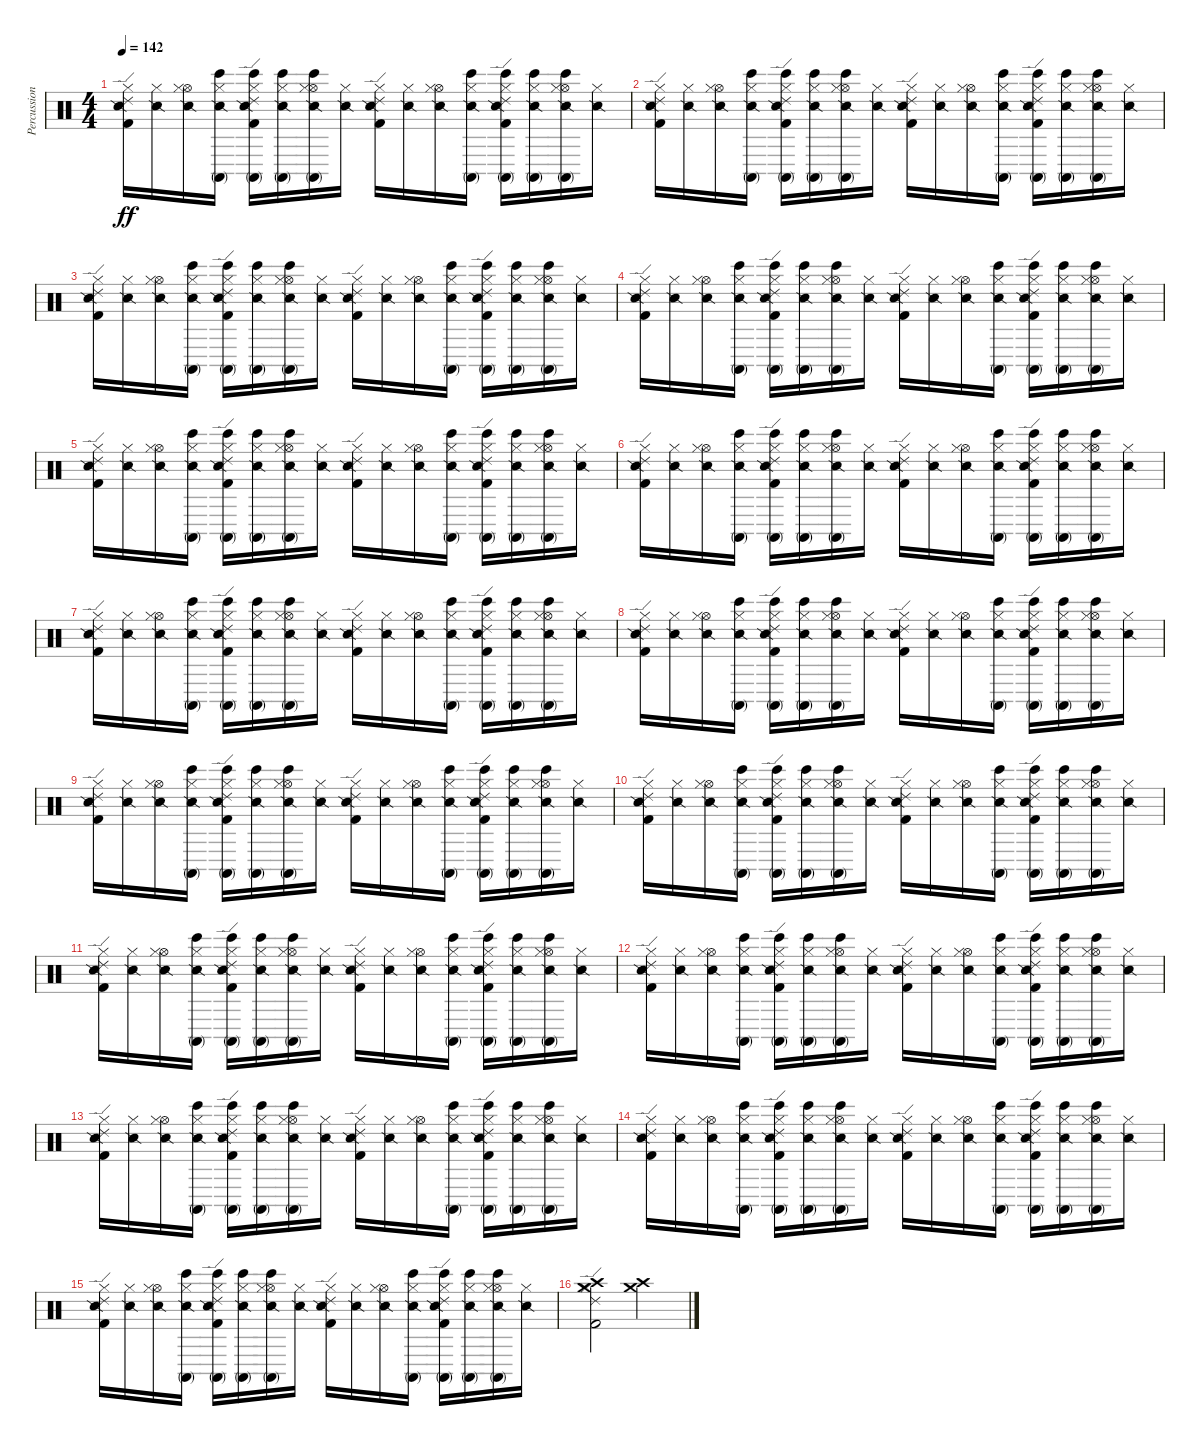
\track ("Percussion" "Percussion") {instrument percussion}
\staff {score}
\articulation defaults
\ts (4 4)
\tempo 142
\clef neutral
\ks c
("Ride (edge) 2" "Hi-Hat (closed)" "Snare (side stick) 2" "Kick (hit) 2").16{dy ff} ("Hi-Hat (closed)" "Snare (side stick) 2").16 ("Hi-Hat (open)" "Hi-Hat (closed)" "Snare (side stick) 2").16 ("Conga high (mute)" "Bongo High (hit)" "Hi-Hat (closed)" "Snare (side stick) 2").16 ("Conga high (mute)" "Bongo High (hit)" "Ride (edge) 2" "Hi-Hat (closed)" "Snare (side stick) 2" "Kick (hit) 2").16 ("Conga high (mute)" "Bongo High (hit)" "Hi-Hat (closed)" "Snare (side stick) 2").16 ("Conga high (mute)" "Bongo High (hit)" "Hi-Hat (open)" "Hi-Hat (closed)" "Snare (side stick) 2").16 ("Hi-Hat (closed)" "Snare (side stick) 2").16 ("Ride (edge) 2" "Hi-Hat (closed)" "Snare (side stick) 2" "Kick (hit) 2").16 ("Hi-Hat (closed)" "Snare (side stick) 2").16 ("Hi-Hat (open)" "Hi-Hat (closed)" "Snare (side stick) 2").16 ("Conga high (mute)" "Bongo High (hit)" "Hi-Hat (closed)" "Snare (side stick) 2").16 ("Conga high (mute)" "Bongo High (hit)" "Ride (edge) 2" "Hi-Hat (closed)" "Snare (side stick) 2" "Kick (hit) 2").16 ("Conga high (mute)" "Bongo High (hit)" "Hi-Hat (closed)" "Snare (side stick) 2").16 ("Conga high (mute)" "Bongo High (hit)" "Hi-Hat (open)" "Hi-Hat (closed)" "Snare (side stick) 2").16 ("Hi-Hat (closed)" "Snare (side stick) 2").16 |
("Ride (edge) 2" "Hi-Hat (closed)" "Snare (side stick) 2" "Kick (hit) 2").16 ("Hi-Hat (closed)" "Snare (side stick) 2").16 ("Hi-Hat (open)" "Hi-Hat (closed)" "Snare (side stick) 2").16 ("Conga high (mute)" "Bongo High (hit)" "Hi-Hat (closed)" "Snare (side stick) 2").16 ("Conga high (mute)" "Bongo High (hit)" "Ride (edge) 2" "Hi-Hat (closed)" "Snare (side stick) 2" "Kick (hit) 2").16 ("Conga high (mute)" "Bongo High (hit)" "Hi-Hat (closed)" "Snare (side stick) 2").16 ("Conga high (mute)" "Bongo High (hit)" "Hi-Hat (open)" "Hi-Hat (closed)" "Snare (side stick) 2").16 ("Hi-Hat (closed)" "Snare (side stick) 2").16 ("Ride (edge) 2" "Hi-Hat (closed)" "Snare (side stick) 2" "Kick (hit) 2").16 ("Hi-Hat (closed)" "Snare (side stick) 2").16 ("Hi-Hat (open)" "Hi-Hat (closed)" "Snare (side stick) 2").16 ("Conga high (mute)" "Bongo High (hit)" "Hi-Hat (closed)" "Snare (side stick) 2").16 ("Conga high (mute)" "Bongo High (hit)" "Ride (edge) 2" "Hi-Hat (closed)" "Snare (side stick) 2" "Kick (hit) 2").16 ("Conga high (mute)" "Bongo High (hit)" "Hi-Hat (closed)" "Snare (side stick) 2").16 ("Conga high (mute)" "Bongo High (hit)" "Hi-Hat (open)" "Hi-Hat (closed)" "Snare (side stick) 2").16 ("Hi-Hat (closed)" "Snare (side stick) 2").16 |
("Ride (edge) 2" "Hi-Hat (closed)" "Snare (side stick) 2" "Kick (hit) 2").16 ("Hi-Hat (closed)" "Snare (side stick) 2").16 ("Hi-Hat (open)" "Hi-Hat (closed)" "Snare (side stick) 2").16 ("Conga high (mute)" "Bongo High (hit)" "Hi-Hat (closed)" "Snare (side stick) 2").16 ("Conga high (mute)" "Bongo High (hit)" "Ride (edge) 2" "Hi-Hat (closed)" "Snare (side stick) 2" "Kick (hit) 2").16 ("Conga high (mute)" "Bongo High (hit)" "Hi-Hat (closed)" "Snare (side stick) 2").16 ("Conga high (mute)" "Bongo High (hit)" "Hi-Hat (open)" "Hi-Hat (closed)" "Snare (side stick) 2").16 ("Hi-Hat (closed)" "Snare (side stick) 2").16 ("Ride (edge) 2" "Hi-Hat (closed)" "Snare (side stick) 2" "Kick (hit) 2").16 ("Hi-Hat (closed)" "Snare (side stick) 2").16 ("Hi-Hat (open)" "Hi-Hat (closed)" "Snare (side stick) 2").16 ("Conga high (mute)" "Bongo High (hit)" "Hi-Hat (closed)" "Snare (side stick) 2").16 ("Conga high (mute)" "Bongo High (hit)" "Ride (edge) 2" "Hi-Hat (closed)" "Snare (side stick) 2" "Kick (hit) 2").16 ("Conga high (mute)" "Bongo High (hit)" "Hi-Hat (closed)" "Snare (side stick) 2").16 ("Conga high (mute)" "Bongo High (hit)" "Hi-Hat (open)" "Hi-Hat (closed)" "Snare (side stick) 2").16 ("Hi-Hat (closed)" "Snare (side stick) 2").16 |
("Ride (edge) 2" "Hi-Hat (closed)" "Snare (side stick) 2" "Kick (hit) 2").16 ("Hi-Hat (closed)" "Snare (side stick) 2").16 ("Hi-Hat (open)" "Hi-Hat (closed)" "Snare (side stick) 2").16 ("Conga high (mute)" "Bongo High (hit)" "Hi-Hat (closed)" "Snare (side stick) 2").16 ("Conga high (mute)" "Bongo High (hit)" "Ride (edge) 2" "Hi-Hat (closed)" "Snare (side stick) 2" "Kick (hit) 2").16 ("Conga high (mute)" "Bongo High (hit)" "Hi-Hat (closed)" "Snare (side stick) 2").16 ("Conga high (mute)" "Bongo High (hit)" "Hi-Hat (open)" "Hi-Hat (closed)" "Snare (side stick) 2").16 ("Hi-Hat (closed)" "Snare (side stick) 2").16 ("Ride (edge) 2" "Hi-Hat (closed)" "Snare (side stick) 2" "Kick (hit) 2").16 ("Hi-Hat (closed)" "Snare (side stick) 2").16 ("Hi-Hat (open)" "Hi-Hat (closed)" "Snare (side stick) 2").16 ("Conga high (mute)" "Bongo High (hit)" "Hi-Hat (closed)" "Snare (side stick) 2").16 ("Conga high (mute)" "Bongo High (hit)" "Ride (edge) 2" "Hi-Hat (closed)" "Snare (side stick) 2" "Kick (hit) 2").16 ("Conga high (mute)" "Bongo High (hit)" "Hi-Hat (closed)" "Snare (side stick) 2").16 ("Conga high (mute)" "Bongo High (hit)" "Hi-Hat (open)" "Hi-Hat (closed)" "Snare (side stick) 2").16 ("Hi-Hat (closed)" "Snare (side stick) 2").16 |
("Ride (edge) 2" "Hi-Hat (closed)" "Snare (side stick) 2" "Kick (hit) 2").16 ("Hi-Hat (closed)" "Snare (side stick) 2").16 ("Hi-Hat (open)" "Hi-Hat (closed)" "Snare (side stick) 2").16 ("Conga high (mute)" "Bongo High (hit)" "Hi-Hat (closed)" "Snare (side stick) 2").16 ("Conga high (mute)" "Bongo High (hit)" "Ride (edge) 2" "Hi-Hat (closed)" "Snare (side stick) 2" "Kick (hit) 2").16 ("Conga high (mute)" "Bongo High (hit)" "Hi-Hat (closed)" "Snare (side stick) 2").16 ("Conga high (mute)" "Bongo High (hit)" "Hi-Hat (open)" "Hi-Hat (closed)" "Snare (side stick) 2").16 ("Hi-Hat (closed)" "Snare (side stick) 2").16 ("Ride (edge) 2" "Hi-Hat (closed)" "Snare (side stick) 2" "Kick (hit) 2").16 ("Hi-Hat (closed)" "Snare (side stick) 2").16 ("Hi-Hat (open)" "Hi-Hat (closed)" "Snare (side stick) 2").16 ("Conga high (mute)" "Bongo High (hit)" "Hi-Hat (closed)" "Snare (side stick) 2").16 ("Conga high (mute)" "Bongo High (hit)" "Ride (edge) 2" "Hi-Hat (closed)" "Snare (side stick) 2" "Kick (hit) 2").16 ("Conga high (mute)" "Bongo High (hit)" "Hi-Hat (closed)" "Snare (side stick) 2").16 ("Conga high (mute)" "Bongo High (hit)" "Hi-Hat (open)" "Hi-Hat (closed)" "Snare (side stick) 2").16 ("Hi-Hat (closed)" "Snare (side stick) 2").16 |
("Ride (edge) 2" "Hi-Hat (closed)" "Snare (side stick) 2" "Kick (hit) 2").16 ("Hi-Hat (closed)" "Snare (side stick) 2").16 ("Hi-Hat (open)" "Hi-Hat (closed)" "Snare (side stick) 2").16 ("Conga high (mute)" "Bongo High (hit)" "Hi-Hat (closed)" "Snare (side stick) 2").16 ("Conga high (mute)" "Bongo High (hit)" "Ride (edge) 2" "Hi-Hat (closed)" "Snare (side stick) 2" "Kick (hit) 2").16 ("Conga high (mute)" "Bongo High (hit)" "Hi-Hat (closed)" "Snare (side stick) 2").16 ("Conga high (mute)" "Bongo High (hit)" "Hi-Hat (open)" "Hi-Hat (closed)" "Snare (side stick) 2").16 ("Hi-Hat (closed)" "Snare (side stick) 2").16 ("Ride (edge) 2" "Hi-Hat (closed)" "Snare (side stick) 2" "Kick (hit) 2").16 ("Hi-Hat (closed)" "Snare (side stick) 2").16 ("Hi-Hat (open)" "Hi-Hat (closed)" "Snare (side stick) 2").16 ("Conga high (mute)" "Bongo High (hit)" "Hi-Hat (closed)" "Snare (side stick) 2").16 ("Conga high (mute)" "Bongo High (hit)" "Ride (edge) 2" "Hi-Hat (closed)" "Snare (side stick) 2" "Kick (hit) 2").16 ("Conga high (mute)" "Bongo High (hit)" "Hi-Hat (closed)" "Snare (side stick) 2").16 ("Conga high (mute)" "Bongo High (hit)" "Hi-Hat (open)" "Hi-Hat (closed)" "Snare (side stick) 2").16 ("Hi-Hat (closed)" "Snare (side stick) 2").16 |
("Ride (edge) 2" "Hi-Hat (closed)" "Snare (side stick) 2" "Kick (hit) 2").16 ("Hi-Hat (closed)" "Snare (side stick) 2").16 ("Hi-Hat (open)" "Hi-Hat (closed)" "Snare (side stick) 2").16 ("Conga high (mute)" "Bongo High (hit)" "Hi-Hat (closed)" "Snare (side stick) 2").16 ("Conga high (mute)" "Bongo High (hit)" "Ride (edge) 2" "Hi-Hat (closed)" "Snare (side stick) 2" "Kick (hit) 2").16 ("Conga high (mute)" "Bongo High (hit)" "Hi-Hat (closed)" "Snare (side stick) 2").16 ("Conga high (mute)" "Bongo High (hit)" "Hi-Hat (open)" "Hi-Hat (closed)" "Snare (side stick) 2").16 ("Hi-Hat (closed)" "Snare (side stick) 2").16 ("Ride (edge) 2" "Hi-Hat (closed)" "Snare (side stick) 2" "Kick (hit) 2").16 ("Hi-Hat (closed)" "Snare (side stick) 2").16 ("Hi-Hat (open)" "Hi-Hat (closed)" "Snare (side stick) 2").16 ("Conga high (mute)" "Bongo High (hit)" "Hi-Hat (closed)" "Snare (side stick) 2").16 ("Conga high (mute)" "Bongo High (hit)" "Ride (edge) 2" "Hi-Hat (closed)" "Snare (side stick) 2" "Kick (hit) 2").16 ("Conga high (mute)" "Bongo High (hit)" "Hi-Hat (closed)" "Snare (side stick) 2").16 ("Conga high (mute)" "Bongo High (hit)" "Hi-Hat (open)" "Hi-Hat (closed)" "Snare (side stick) 2").16 ("Hi-Hat (closed)" "Snare (side stick) 2").16 |
("Ride (edge) 2" "Hi-Hat (closed)" "Snare (side stick) 2" "Kick (hit) 2").16 ("Hi-Hat (closed)" "Snare (side stick) 2").16 ("Hi-Hat (open)" "Hi-Hat (closed)" "Snare (side stick) 2").16 ("Conga high (mute)" "Bongo High (hit)" "Hi-Hat (closed)" "Snare (side stick) 2").16 ("Conga high (mute)" "Bongo High (hit)" "Ride (edge) 2" "Hi-Hat (closed)" "Snare (side stick) 2" "Kick (hit) 2").16 ("Conga high (mute)" "Bongo High (hit)" "Hi-Hat (closed)" "Snare (side stick) 2").16 ("Conga high (mute)" "Bongo High (hit)" "Hi-Hat (open)" "Hi-Hat (closed)" "Snare (side stick) 2").16 ("Hi-Hat (closed)" "Snare (side stick) 2").16 ("Ride (edge) 2" "Hi-Hat (closed)" "Snare (side stick) 2" "Kick (hit) 2").16 ("Hi-Hat (closed)" "Snare (side stick) 2").16 ("Hi-Hat (open)" "Hi-Hat (closed)" "Snare (side stick) 2").16 ("Conga high (mute)" "Bongo High (hit)" "Hi-Hat (closed)" "Snare (side stick) 2").16 ("Conga high (mute)" "Bongo High (hit)" "Ride (edge) 2" "Hi-Hat (closed)" "Snare (side stick) 2" "Kick (hit) 2").16 ("Conga high (mute)" "Bongo High (hit)" "Hi-Hat (closed)" "Snare (side stick) 2").16 ("Conga high (mute)" "Bongo High (hit)" "Hi-Hat (open)" "Hi-Hat (closed)" "Snare (side stick) 2").16 ("Hi-Hat (closed)" "Snare (side stick) 2").16 |
("Ride (edge) 2" "Hi-Hat (closed)" "Snare (side stick) 2" "Kick (hit) 2").16 ("Hi-Hat (closed)" "Snare (side stick) 2").16 ("Hi-Hat (open)" "Hi-Hat (closed)" "Snare (side stick) 2").16 ("Conga high (mute)" "Bongo High (hit)" "Hi-Hat (closed)" "Snare (side stick) 2").16 ("Conga high (mute)" "Bongo High (hit)" "Ride (edge) 2" "Hi-Hat (closed)" "Snare (side stick) 2" "Kick (hit) 2").16 ("Conga high (mute)" "Bongo High (hit)" "Hi-Hat (closed)" "Snare (side stick) 2").16 ("Conga high (mute)" "Bongo High (hit)" "Hi-Hat (open)" "Hi-Hat (closed)" "Snare (side stick) 2").16 ("Hi-Hat (closed)" "Snare (side stick) 2").16 ("Ride (edge) 2" "Hi-Hat (closed)" "Snare (side stick) 2" "Kick (hit) 2").16 ("Hi-Hat (closed)" "Snare (side stick) 2").16 ("Hi-Hat (open)" "Hi-Hat (closed)" "Snare (side stick) 2").16 ("Conga high (mute)" "Bongo High (hit)" "Hi-Hat (closed)" "Snare (side stick) 2").16 ("Conga high (mute)" "Bongo High (hit)" "Ride (edge) 2" "Hi-Hat (closed)" "Snare (side stick) 2" "Kick (hit) 2").16 ("Conga high (mute)" "Bongo High (hit)" "Hi-Hat (closed)" "Snare (side stick) 2").16 ("Conga high (mute)" "Bongo High (hit)" "Hi-Hat (open)" "Hi-Hat (closed)" "Snare (side stick) 2").16 ("Hi-Hat (closed)" "Snare (side stick) 2").16 |
("Ride (edge) 2" "Hi-Hat (closed)" "Snare (side stick) 2" "Kick (hit) 2").16 ("Hi-Hat (closed)" "Snare (side stick) 2").16 ("Hi-Hat (open)" "Hi-Hat (closed)" "Snare (side stick) 2").16 ("Conga high (mute)" "Bongo High (hit)" "Hi-Hat (closed)" "Snare (side stick) 2").16 ("Conga high (mute)" "Bongo High (hit)" "Ride (edge) 2" "Hi-Hat (closed)" "Snare (side stick) 2" "Kick (hit) 2").16 ("Conga high (mute)" "Bongo High (hit)" "Hi-Hat (closed)" "Snare (side stick) 2").16 ("Conga high (mute)" "Bongo High (hit)" "Hi-Hat (open)" "Hi-Hat (closed)" "Snare (side stick) 2").16 ("Hi-Hat (closed)" "Snare (side stick) 2").16 ("Ride (edge) 2" "Hi-Hat (closed)" "Snare (side stick) 2" "Kick (hit) 2").16 ("Hi-Hat (closed)" "Snare (side stick) 2").16 ("Hi-Hat (open)" "Hi-Hat (closed)" "Snare (side stick) 2").16 ("Conga high (mute)" "Bongo High (hit)" "Hi-Hat (closed)" "Snare (side stick) 2").16 ("Conga high (mute)" "Bongo High (hit)" "Ride (edge) 2" "Hi-Hat (closed)" "Snare (side stick) 2" "Kick (hit) 2").16 ("Conga high (mute)" "Bongo High (hit)" "Hi-Hat (closed)" "Snare (side stick) 2").16 ("Conga high (mute)" "Bongo High (hit)" "Hi-Hat (open)" "Hi-Hat (closed)" "Snare (side stick) 2").16 ("Hi-Hat (closed)" "Snare (side stick) 2").16 |
("Ride (edge) 2" "Hi-Hat (closed)" "Snare (side stick) 2" "Kick (hit) 2").16 ("Hi-Hat (closed)" "Snare (side stick) 2").16 ("Hi-Hat (open)" "Hi-Hat (closed)" "Snare (side stick) 2").16 ("Conga high (mute)" "Bongo High (hit)" "Hi-Hat (closed)" "Snare (side stick) 2").16 ("Conga high (mute)" "Bongo High (hit)" "Ride (edge) 2" "Hi-Hat (closed)" "Snare (side stick) 2" "Kick (hit) 2").16 ("Conga high (mute)" "Bongo High (hit)" "Hi-Hat (closed)" "Snare (side stick) 2").16 ("Conga high (mute)" "Bongo High (hit)" "Hi-Hat (open)" "Hi-Hat (closed)" "Snare (side stick) 2").16 ("Hi-Hat (closed)" "Snare (side stick) 2").16 ("Ride (edge) 2" "Hi-Hat (closed)" "Snare (side stick) 2" "Kick (hit) 2").16 ("Hi-Hat (closed)" "Snare (side stick) 2").16 ("Hi-Hat (open)" "Hi-Hat (closed)" "Snare (side stick) 2").16 ("Conga high (mute)" "Bongo High (hit)" "Hi-Hat (closed)" "Snare (side stick) 2").16 ("Conga high (mute)" "Bongo High (hit)" "Ride (edge) 2" "Hi-Hat (closed)" "Snare (side stick) 2" "Kick (hit) 2").16 ("Conga high (mute)" "Bongo High (hit)" "Hi-Hat (closed)" "Snare (side stick) 2").16 ("Conga high (mute)" "Bongo High (hit)" "Hi-Hat (open)" "Hi-Hat (closed)" "Snare (side stick) 2").16 ("Hi-Hat (closed)" "Snare (side stick) 2").16 |
("Ride (edge) 2" "Hi-Hat (closed)" "Snare (side stick) 2" "Kick (hit) 2").16 ("Hi-Hat (closed)" "Snare (side stick) 2").16 ("Hi-Hat (open)" "Hi-Hat (closed)" "Snare (side stick) 2").16 ("Conga high (mute)" "Bongo High (hit)" "Hi-Hat (closed)" "Snare (side stick) 2").16 ("Conga high (mute)" "Bongo High (hit)" "Ride (edge) 2" "Hi-Hat (closed)" "Snare (side stick) 2" "Kick (hit) 2").16 ("Conga high (mute)" "Bongo High (hit)" "Hi-Hat (closed)" "Snare (side stick) 2").16 ("Conga high (mute)" "Bongo High (hit)" "Hi-Hat (open)" "Hi-Hat (closed)" "Snare (side stick) 2").16 ("Hi-Hat (closed)" "Snare (side stick) 2").16 ("Ride (edge) 2" "Hi-Hat (closed)" "Snare (side stick) 2" "Kick (hit) 2").16 ("Hi-Hat (closed)" "Snare (side stick) 2").16 ("Hi-Hat (open)" "Hi-Hat (closed)" "Snare (side stick) 2").16 ("Conga high (mute)" "Bongo High (hit)" "Hi-Hat (closed)" "Snare (side stick) 2").16 ("Conga high (mute)" "Bongo High (hit)" "Ride (edge) 2" "Hi-Hat (closed)" "Snare (side stick) 2" "Kick (hit) 2").16 ("Conga high (mute)" "Bongo High (hit)" "Hi-Hat (closed)" "Snare (side stick) 2").16 ("Conga high (mute)" "Bongo High (hit)" "Hi-Hat (open)" "Hi-Hat (closed)" "Snare (side stick) 2").16 ("Hi-Hat (closed)" "Snare (side stick) 2").16 |
("Ride (edge) 2" "Hi-Hat (closed)" "Snare (side stick) 2" "Kick (hit) 2").16 ("Hi-Hat (closed)" "Snare (side stick) 2").16 ("Hi-Hat (open)" "Hi-Hat (closed)" "Snare (side stick) 2").16 ("Conga high (mute)" "Bongo High (hit)" "Hi-Hat (closed)" "Snare (side stick) 2").16 ("Conga high (mute)" "Bongo High (hit)" "Ride (edge) 2" "Hi-Hat (closed)" "Snare (side stick) 2" "Kick (hit) 2").16 ("Conga high (mute)" "Bongo High (hit)" "Hi-Hat (closed)" "Snare (side stick) 2").16 ("Conga high (mute)" "Bongo High (hit)" "Hi-Hat (open)" "Hi-Hat (closed)" "Snare (side stick) 2").16 ("Hi-Hat (closed)" "Snare (side stick) 2").16 ("Ride (edge) 2" "Hi-Hat (closed)" "Snare (side stick) 2" "Kick (hit) 2").16 ("Hi-Hat (closed)" "Snare (side stick) 2").16 ("Hi-Hat (open)" "Hi-Hat (closed)" "Snare (side stick) 2").16 ("Conga high (mute)" "Bongo High (hit)" "Hi-Hat (closed)" "Snare (side stick) 2").16 ("Conga high (mute)" "Bongo High (hit)" "Ride (edge) 2" "Hi-Hat (closed)" "Snare (side stick) 2" "Kick (hit) 2").16 ("Conga high (mute)" "Bongo High (hit)" "Hi-Hat (closed)" "Snare (side stick) 2").16 ("Conga high (mute)" "Bongo High (hit)" "Hi-Hat (open)" "Hi-Hat (closed)" "Snare (side stick) 2").16 ("Hi-Hat (closed)" "Snare (side stick) 2").16 |
("Ride (edge) 2" "Hi-Hat (closed)" "Snare (side stick) 2" "Kick (hit) 2").16 ("Hi-Hat (closed)" "Snare (side stick) 2").16 ("Hi-Hat (open)" "Hi-Hat (closed)" "Snare (side stick) 2").16 ("Conga high (mute)" "Bongo High (hit)" "Hi-Hat (closed)" "Snare (side stick) 2").16 ("Conga high (mute)" "Bongo High (hit)" "Ride (edge) 2" "Hi-Hat (closed)" "Snare (side stick) 2" "Kick (hit) 2").16 ("Conga high (mute)" "Bongo High (hit)" "Hi-Hat (closed)" "Snare (side stick) 2").16 ("Conga high (mute)" "Bongo High (hit)" "Hi-Hat (open)" "Hi-Hat (closed)" "Snare (side stick) 2").16 ("Hi-Hat (closed)" "Snare (side stick) 2").16 ("Ride (edge) 2" "Hi-Hat (closed)" "Snare (side stick) 2" "Kick (hit) 2").16 ("Hi-Hat (closed)" "Snare (side stick) 2").16 ("Hi-Hat (open)" "Hi-Hat (closed)" "Snare (side stick) 2").16 ("Conga high (mute)" "Bongo High (hit)" "Hi-Hat (closed)" "Snare (side stick) 2").16 ("Conga high (mute)" "Bongo High (hit)" "Ride (edge) 2" "Hi-Hat (closed)" "Snare (side stick) 2" "Kick (hit) 2").16 ("Conga high (mute)" "Bongo High (hit)" "Hi-Hat (closed)" "Snare (side stick) 2").16 ("Conga high (mute)" "Bongo High (hit)" "Hi-Hat (open)" "Hi-Hat (closed)" "Snare (side stick) 2").16 ("Hi-Hat (closed)" "Snare (side stick) 2").16 |
("Ride (edge) 2" "Hi-Hat (closed)" "Snare (side stick) 2" "Kick (hit) 2").16 ("Hi-Hat (closed)" "Snare (side stick) 2").16 ("Hi-Hat (open)" "Hi-Hat (closed)" "Snare (side stick) 2").16 ("Conga high (mute)" "Bongo High (hit)" "Hi-Hat (closed)" "Snare (side stick) 2").16 ("Conga high (mute)" "Bongo High (hit)" "Ride (edge) 2" "Hi-Hat (closed)" "Snare (side stick) 2" "Kick (hit) 2").16 ("Conga high (mute)" "Bongo High (hit)" "Hi-Hat (closed)" "Snare (side stick) 2").16 ("Conga high (mute)" "Bongo High (hit)" "Hi-Hat (open)" "Hi-Hat (closed)" "Snare (side stick) 2").16 ("Hi-Hat (closed)" "Snare (side stick) 2").16 ("Ride (edge) 2" "Hi-Hat (closed)" "Snare (side stick) 2" "Kick (hit) 2").16 ("Hi-Hat (closed)" "Snare (side stick) 2").16 ("Hi-Hat (open)" "Hi-Hat (closed)" "Snare (side stick) 2").16 ("Conga high (mute)" "Bongo High (hit)" "Hi-Hat (closed)" "Snare (side stick) 2").16 ("Conga high (mute)" "Bongo High (hit)" "Ride (edge) 2" "Hi-Hat (closed)" "Snare (side stick) 2" "Kick (hit) 2").16 ("Conga high (mute)" "Bongo High (hit)" "Hi-Hat (closed)" "Snare (side stick) 2").16 ("Conga high (mute)" "Bongo High (hit)" "Hi-Hat (open)" "Hi-Hat (closed)" "Snare (side stick) 2").16 ("Hi-Hat (closed)" "Snare (side stick) 2").16 |
("Ride (edge) 2" "Crash medium (hit)" "Crash high (hit)" "Hi-Hat (closed)" "Kick (hit) 2").2 ("Crash medium (hit)" "Crash high (hit)").2
